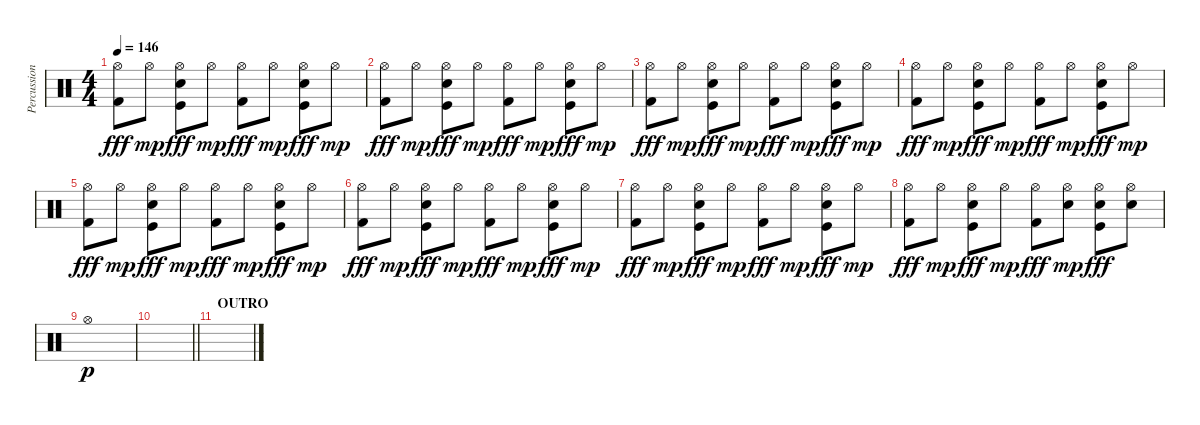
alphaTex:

\track ("Percussion" "Percussion") {instrument percussion}
\staff {score}
\articulation defaults
\ts (4 4)
\tempo 146
\clef neutral
\ks c
("Hi-Hat (open)" "Kick (hit) 2").8{dy fff} "Hi-Hat (open)".8{dy mp} ("Hi-Hat (open)" "Kick (hit)" "Snare (hit) 2").8{dy fff} "Hi-Hat (open)".8{dy mp} ("Hi-Hat (open)" "Kick (hit) 2").8{dy fff} "Hi-Hat (open)".8{dy mp} ("Hi-Hat (open)" "Kick (hit)" "Snare (hit) 2").8{dy fff} "Hi-Hat (open)".8{dy mp} |
("Hi-Hat (open)" "Kick (hit) 2").8{dy fff} "Hi-Hat (open)".8{dy mp} ("Hi-Hat (open)" "Kick (hit)" "Snare (hit) 2").8{dy fff} "Hi-Hat (open)".8{dy mp} ("Hi-Hat (open)" "Kick (hit) 2").8{dy fff} "Hi-Hat (open)".8{dy mp} ("Hi-Hat (open)" "Kick (hit)" "Snare (hit) 2").8{dy fff} "Hi-Hat (open)".8{dy mp} |
("Hi-Hat (open)" "Kick (hit) 2").8{dy fff} "Hi-Hat (open)".8{dy mp} ("Hi-Hat (open)" "Kick (hit)" "Snare (hit) 2").8{dy fff} "Hi-Hat (open)".8{dy mp} ("Hi-Hat (open)" "Kick (hit) 2").8{dy fff} "Hi-Hat (open)".8{dy mp} ("Hi-Hat (open)" "Kick (hit)" "Snare (hit) 2").8{dy fff} "Hi-Hat (open)".8{dy mp} |
("Hi-Hat (open)" "Kick (hit) 2").8{dy fff} "Hi-Hat (open)".8{dy mp} ("Hi-Hat (open)" "Kick (hit)" "Snare (hit) 2").8{dy fff} "Hi-Hat (open)".8{dy mp} ("Hi-Hat (open)" "Kick (hit) 2").8{dy fff} "Hi-Hat (open)".8{dy mp} ("Hi-Hat (open)" "Kick (hit)" "Snare (hit) 2").8{dy fff} "Hi-Hat (open)".8{dy mp} |
("Hi-Hat (open)" "Kick (hit) 2").8{dy fff} "Hi-Hat (open)".8{dy mp} ("Hi-Hat (open)" "Kick (hit)" "Snare (hit) 2").8{dy fff} "Hi-Hat (open)".8{dy mp} ("Hi-Hat (open)" "Kick (hit) 2").8{dy fff} "Hi-Hat (open)".8{dy mp} ("Hi-Hat (open)" "Kick (hit)" "Snare (hit) 2").8{dy fff} "Hi-Hat (open)".8{dy mp} |
("Hi-Hat (open)" "Kick (hit) 2").8{dy fff} "Hi-Hat (open)".8{dy mp} ("Hi-Hat (open)" "Kick (hit)" "Snare (hit) 2").8{dy fff} "Hi-Hat (open)".8{dy mp} ("Hi-Hat (open)" "Kick (hit) 2").8{dy fff} "Hi-Hat (open)".8{dy mp} ("Hi-Hat (open)" "Kick (hit)" "Snare (hit) 2").8{dy fff} "Hi-Hat (open)".8{dy mp} |
("Hi-Hat (open)" "Kick (hit) 2").8{dy fff} "Hi-Hat (open)".8{dy mp} ("Hi-Hat (open)" "Kick (hit)" "Snare (hit) 2").8{dy fff} "Hi-Hat (open)".8{dy mp} ("Hi-Hat (open)" "Kick (hit) 2").8{dy fff} "Hi-Hat (open)".8{dy mp} ("Hi-Hat (open)" "Kick (hit)" "Snare (hit) 2").8{dy fff} "Hi-Hat (open)".8{dy mp} |
("Hi-Hat (open)" "Kick (hit) 2").8{dy fff} "Hi-Hat (open)".8{dy mp} ("Hi-Hat (open)" "Kick (hit)" "Snare (hit) 2").8{dy fff} "Hi-Hat (open)".8{dy mp} ("Hi-Hat (open)" "Kick (hit) 2").8{dy fff} ("Hi-Hat (open)" "Snare (hit) 2").8{dy mp} ("Hi-Hat (open)" "Kick (hit)" "Snare (hit) 2").8{dy fff} ("Hi-Hat (open)" "Snare (hit) 2").8 |
"Hi-Hat (open)".1{dy p} |
\barLineRight lightlight
|
\section ("" "OUTRO")
